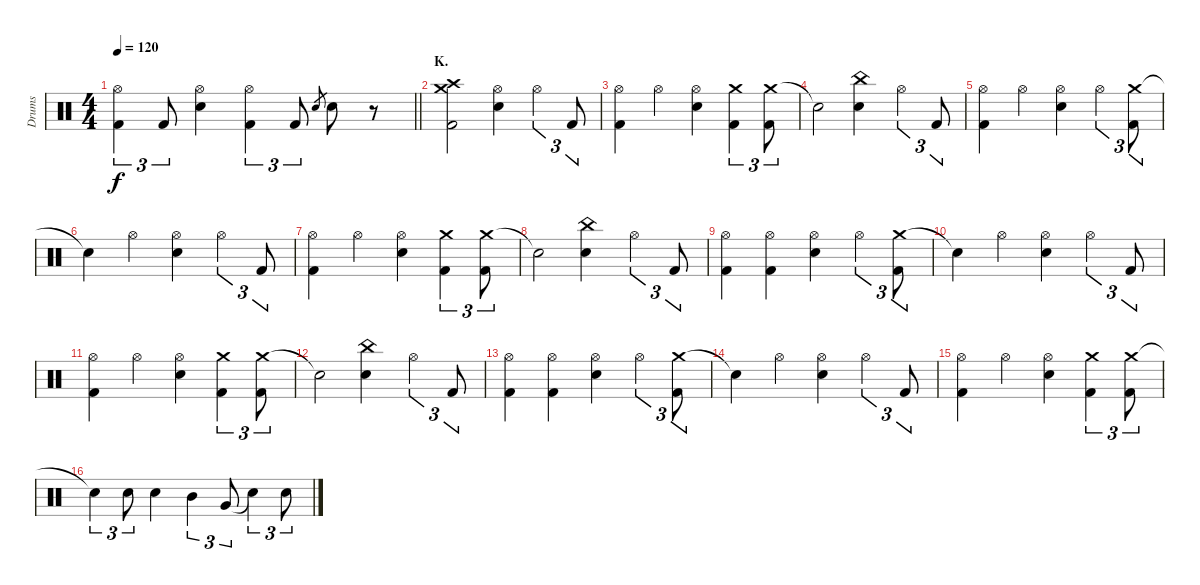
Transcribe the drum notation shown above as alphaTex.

\track ("Drums" "Drums") {instrument percussion}
\staff {score}
\articulation defaults
\ts (4 4)
\tempo 120
\clef neutral
\barLineRight lightlight
\ks c
("Hi-Hat (open)" "Kick (hit) 2").4{tu (3 2) dy f} "Kick (hit) 2".8{tu (3 2)} ("Hi-Hat (open)" "Electric Snare (hit)").4 ("Hi-Hat (open)" "Kick (hit) 2").4{tu (3 2)} "Kick (hit) 2".8{tu (3 2)} "Electric Snare (hit)".8{gr} "Electric Snare (hit)".8 r.8 |
\section ("" "K.")
("Crash medium (hit)" "Crash high (hit)" "Kick (hit) 2").2 ("Hi-Hat (open)" "Electric Snare (hit)").4 "Hi-Hat (open)".4{tu (3 2)} "Kick (hit) 2".8{tu (3 2)} |
("Hi-Hat (open)" "Kick (hit) 2").4 "Hi-Hat (open)".4 ("Hi-Hat (open)" "Electric Snare (hit)").4 ("Crash medium (hit)" "Kick (hit) 2").4{tu (3 2)} ("Crash medium (hit)" "Kick (hit) 2").8{tu (3 2)} |
"Snare (hit)"{t}.2 ("China (hit)" "Electric Snare (hit)").4 "Hi-Hat (open)".4{tu (3 2)} "Kick (hit) 2".8{tu (3 2)} |
("Hi-Hat (open)" "Kick (hit) 2").4 "Hi-Hat (open)".4 ("Hi-Hat (open)" "Electric Snare (hit)").4 "Hi-Hat (open)".4{tu (3 2)} ("Crash medium (hit)" "Kick (hit) 2").8{tu (3 2)} |
"Snare (hit)"{t}.4 "Hi-Hat (open)".4 ("Hi-Hat (open)" "Electric Snare (hit)").4 "Hi-Hat (open)".4{tu (3 2)} "Kick (hit) 2".8{tu (3 2)} |
("Hi-Hat (open)" "Kick (hit) 2").4 "Hi-Hat (open)".4 ("Hi-Hat (open)" "Electric Snare (hit)").4 ("Crash medium (hit)" "Kick (hit) 2").4{tu (3 2)} ("Crash medium (hit)" "Kick (hit) 2").8{tu (3 2)} |
"Snare (hit)"{t}.2 ("China (hit)" "Electric Snare (hit)").4 "Hi-Hat (open)".4{tu (3 2)} "Kick (hit) 2".8{tu (3 2)} |
("Hi-Hat (open)" "Kick (hit) 2").4 ("Hi-Hat (open)" "Kick (hit) 2").4 ("Hi-Hat (open)" "Electric Snare (hit)").4 "Hi-Hat (open)".4{tu (3 2)} ("Crash medium (hit)" "Kick (hit) 2").8{tu (3 2)} |
"Snare (hit)"{t}.4 "Hi-Hat (open)".4 ("Hi-Hat (open)" "Electric Snare (hit)").4 "Hi-Hat (open)".4{tu (3 2)} "Kick (hit) 2".8{tu (3 2)} |
("Hi-Hat (open)" "Kick (hit) 2").4 "Hi-Hat (open)".4 ("Hi-Hat (open)" "Electric Snare (hit)").4 ("Crash medium (hit)" "Kick (hit) 2").4{tu (3 2)} ("Crash medium (hit)" "Kick (hit) 2").8{tu (3 2)} |
"Snare (hit)"{t}.2 ("China (hit)" "Electric Snare (hit)").4 "Hi-Hat (open)".4{tu (3 2)} "Kick (hit) 2".8{tu (3 2)} |
("Hi-Hat (open)" "Kick (hit) 2").4 ("Hi-Hat (open)" "Kick (hit) 2").4 ("Hi-Hat (open)" "Electric Snare (hit)").4 "Hi-Hat (open)".4{tu (3 2)} ("Crash medium (hit)" "Kick (hit) 2").8{tu (3 2)} |
"Snare (hit)"{t}.4 "Hi-Hat (open)".4 ("Hi-Hat (open)" "Electric Snare (hit)").4 "Hi-Hat (open)".4{tu (3 2)} "Kick (hit) 2".8{tu (3 2)} |
("Hi-Hat (open)" "Kick (hit) 2").4 "Hi-Hat (open)".4 ("Hi-Hat (open)" "Electric Snare (hit)").4 ("Crash medium (hit)" "Kick (hit) 2").4{tu (3 2)} ("Crash medium (hit)" "Kick (hit) 2").8{tu (3 2)} |
"Snare (hit)"{t}.4{tu (3 2)} "Electric Snare (hit)".8{tu (3 2)} "Electric Snare (hit)".4 "Mid Tom (hit)".4{tu (3 2)} "Very Low Tom (hit)".8{tu (3 2)} "Snare (hit)"{t}.4{tu (3 2)} "Electric Snare (hit)".8{tu (3 2)}
